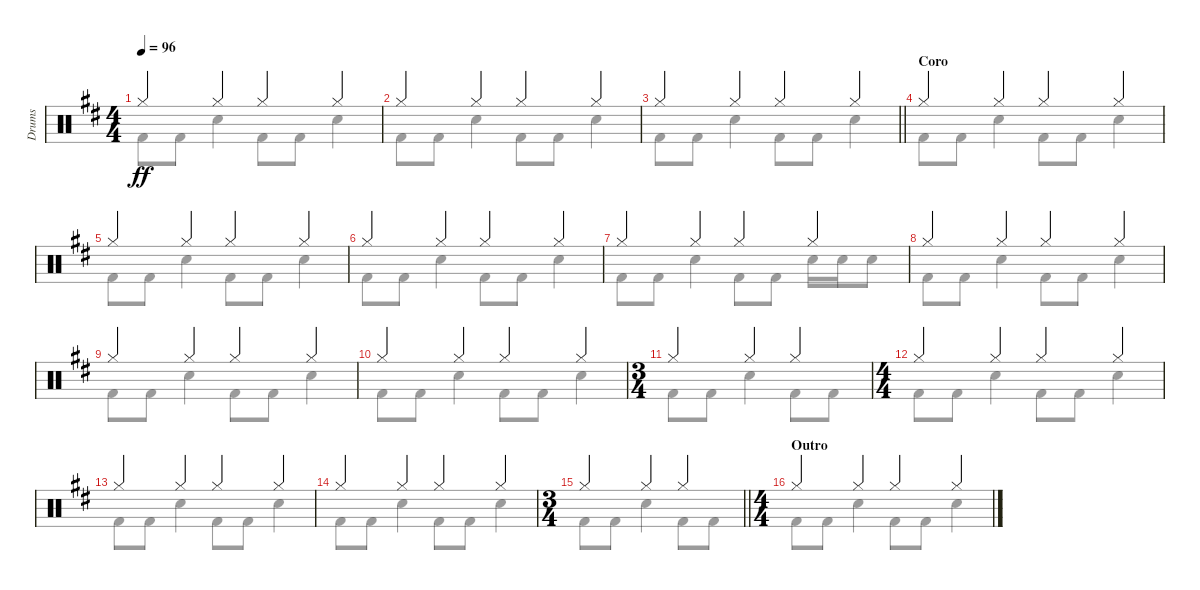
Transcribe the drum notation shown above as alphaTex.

\track ("Drums" "Drums") {instrument percussion}
\staff {score}
\articulation defaults
\voice
\ts (4 4)
\tempo 96
\clef neutral
\ks d "Hi-Hat (closed)".4{dy ff} "Hi-Hat (closed)".4 "Hi-Hat (closed)".4 "Hi-Hat (closed)".4
|
"Hi-Hat (closed)".4 "Hi-Hat (closed)".4 "Hi-Hat (closed)".4 "Hi-Hat (closed)".4 |
\barLineRight lightlight "Hi-Hat (closed)".4 "Hi-Hat (closed)".4 "Hi-Hat (closed)".4 "Hi-Hat (closed)".4
|
\section ("" "Coro")
"Hi-Hat (closed)".4 "Hi-Hat (closed)".4 "Hi-Hat (closed)".4 "Hi-Hat (closed)".4 |
"Hi-Hat (closed)".4 "Hi-Hat (closed)".4 "Hi-Hat (closed)".4 "Hi-Hat (closed)".4 |
"Hi-Hat (closed)".4 "Hi-Hat (closed)".4 "Hi-Hat (closed)".4 "Hi-Hat (closed)".4 |
"Hi-Hat (closed)".4 "Hi-Hat (closed)".4 "Hi-Hat (closed)".4 "Hi-Hat (closed)".4 |
"Hi-Hat (closed)".4 "Hi-Hat (closed)".4 "Hi-Hat (closed)".4 "Hi-Hat (closed)".4 |
"Hi-Hat (closed)".4 "Hi-Hat (closed)".4 "Hi-Hat (closed)".4 "Hi-Hat (closed)".4 |
"Hi-Hat (closed)".4 "Hi-Hat (closed)".4 "Hi-Hat (closed)".4 "Hi-Hat (closed)".4 |
\ts (3 4)
"Hi-Hat (closed)".4 "Hi-Hat (closed)".4 "Hi-Hat (closed)".4 |
\ts (4 4)
"Hi-Hat (closed)".4 "Hi-Hat (closed)".4 "Hi-Hat (closed)".4 "Hi-Hat (closed)".4 |
"Hi-Hat (closed)".4 "Hi-Hat (closed)".4 "Hi-Hat (closed)".4 "Hi-Hat (closed)".4 |
"Hi-Hat (closed)".4 "Hi-Hat (closed)".4 "Hi-Hat (closed)".4 "Hi-Hat (closed)".4 |
\ts (3 4)
\barLineRight lightlight "Hi-Hat (closed)".4 "Hi-Hat (closed)".4 "Hi-Hat (closed)".4
|
\ts (4 4)
\section ("" "Outro")
"Hi-Hat (closed)".4 "Hi-Hat (closed)".4 "Hi-Hat (closed)".4 "Hi-Hat (closed)".4
\voice
\clef neutral
\ottava regular
\simile none
\ks d "Kick (hit) 2".8{dy ff} "Kick (hit) 2".8 "Electric Snare (hit)".4 "Kick (hit) 2".8 "Kick (hit) 2".8 "Electric Snare (hit)".4
|
"Kick (hit) 2".8 "Kick (hit) 2".8 "Electric Snare (hit)".4 "Kick (hit) 2".8 "Kick (hit) 2".8 "Electric Snare (hit)".4 |
\barLineRight lightlight "Kick (hit) 2".8 "Kick (hit) 2".8 "Electric Snare (hit)".4 "Kick (hit) 2".8 "Kick (hit) 2".8 "Electric Snare (hit)".4
|
"Kick (hit) 2".8 "Kick (hit) 2".8 "Electric Snare (hit)".4 "Kick (hit) 2".8 "Kick (hit) 2".8 "Electric Snare (hit)".4 |
"Kick (hit) 2".8 "Kick (hit) 2".8 "Electric Snare (hit)".4 "Kick (hit) 2".8 "Kick (hit) 2".8 "Electric Snare (hit)".4 |
"Kick (hit) 2".8 "Kick (hit) 2".8 "Electric Snare (hit)".4 "Kick (hit) 2".8 "Kick (hit) 2".8 "Electric Snare (hit)".4 |
"Kick (hit) 2".8 "Kick (hit) 2".8 "Electric Snare (hit)".4 "Kick (hit) 2".8 "Kick (hit) 2".8 "Electric Snare (hit)".16 "Electric Snare (hit)".16 "Electric Snare (hit)".8 |
"Kick (hit) 2".8 "Kick (hit) 2".8 "Electric Snare (hit)".4 "Kick (hit) 2".8 "Kick (hit) 2".8 "Electric Snare (hit)".4 |
"Kick (hit) 2".8 "Kick (hit) 2".8 "Electric Snare (hit)".4 "Kick (hit) 2".8 "Kick (hit) 2".8 "Electric Snare (hit)".4 |
"Kick (hit) 2".8 "Kick (hit) 2".8 "Electric Snare (hit)".4 "Kick (hit) 2".8 "Kick (hit) 2".8 "Electric Snare (hit)".4 |
"Kick (hit) 2".8 "Kick (hit) 2".8 "Electric Snare (hit)".4 "Kick (hit) 2".8 "Kick (hit) 2".8 |
"Kick (hit) 2".8 "Kick (hit) 2".8 "Electric Snare (hit)".4 "Kick (hit) 2".8 "Kick (hit) 2".8 "Electric Snare (hit)".4 |
"Kick (hit) 2".8 "Kick (hit) 2".8 "Electric Snare (hit)".4 "Kick (hit) 2".8 "Kick (hit) 2".8 "Electric Snare (hit)".4 |
"Kick (hit) 2".8 "Kick (hit) 2".8 "Electric Snare (hit)".4 "Kick (hit) 2".8 "Kick (hit) 2".8 "Electric Snare (hit)".4 |
\barLineRight lightlight "Kick (hit) 2".8 "Kick (hit) 2".8 "Electric Snare (hit)".4 "Kick (hit) 2".8 "Kick (hit) 2".8
|
"Kick (hit) 2".8 "Kick (hit) 2".8 "Electric Snare (hit)".4 "Kick (hit) 2".8 "Kick (hit) 2".8 "Electric Snare (hit)".4
